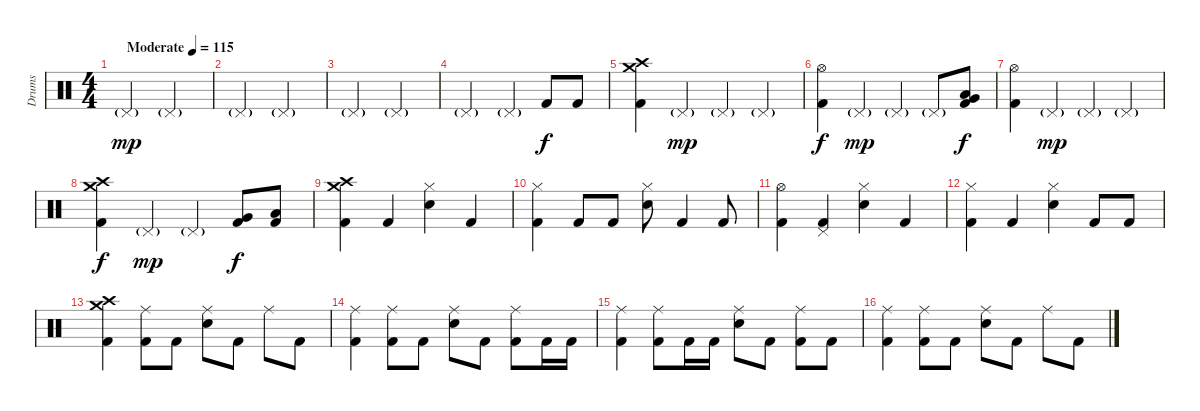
\track ("Drums" "Drums") {instrument percussion}
\staff {score}
\articulation defaults
\ts (4 4)
\tempo (115 "Moderate")
\clef neutral
\ks c "Pedal Hi-Hat (hit)"{g}.2{dy mp} "Pedal Hi-Hat (hit)"{g}.2
|
"Pedal Hi-Hat (hit)"{g}.2 "Pedal Hi-Hat (hit)"{g}.2 |
"Pedal Hi-Hat (hit)"{g}.2 "Pedal Hi-Hat (hit)"{g}.2 |
"Pedal Hi-Hat (hit)"{g}.2 "Pedal Hi-Hat (hit)"{g}.4 "Kick (hit) 2".8{dy f} "Kick (hit) 2".8 |
("Crash medium (hit)" "Crash high (hit)" "Kick (hit) 2").4 "Pedal Hi-Hat (hit)"{g}.4{dy mp} "Pedal Hi-Hat (hit)"{g}.4 "Pedal Hi-Hat (hit)"{g}.4 |
("Hi-Hat (open)" "Kick (hit) 2").4{dy f} "Pedal Hi-Hat (hit)"{g}.4{dy mp} "Pedal Hi-Hat (hit)"{g}.4 "Pedal Hi-Hat (hit)"{g}.8 ("Low Floor Tom (hit)" "Very Low Tom (hit)" "Kick (hit) 2").8{dy f} |
("Hi-Hat (open)" "Kick (hit) 2").4 "Pedal Hi-Hat (hit)"{g}.4{dy mp} "Pedal Hi-Hat (hit)"{g}.4 "Pedal Hi-Hat (hit)"{g}.4 |
("Crash medium (hit)" "Crash high (hit)" "Kick (hit) 2").4{dy f} "Pedal Hi-Hat (hit)"{g}.4{dy mp} "Pedal Hi-Hat (hit)"{g}.4 ("Very Low Tom (hit)" "Kick (hit) 2").8{dy f} ("Low Floor Tom (hit)" "Kick (hit) 2").8 |
("Crash medium (hit)" "Crash high (hit)" "Kick (hit) 2").4 "Kick (hit) 2".4 ("Hi-Hat (closed)" "Electric Snare (hit)").4 "Kick (hit) 2".4 |
("Hi-Hat (closed)" "Kick (hit) 2").4 "Kick (hit) 2".8 "Kick (hit) 2".8 ("Hi-Hat (closed)" "Electric Snare (hit)").8 "Kick (hit) 2".4 "Kick (hit) 2".8 |
("Hi-Hat (open)" "Kick (hit) 2").4 ("Pedal Hi-Hat (hit)" "Kick (hit) 2").4 ("Hi-Hat (closed)" "Electric Snare (hit)").4 "Kick (hit) 2".4 |
("Hi-Hat (closed)" "Kick (hit) 2").4 "Kick (hit) 2".4 ("Hi-Hat (closed)" "Electric Snare (hit)").4 "Kick (hit) 2".8 "Kick (hit) 2".8 |
("Crash medium (hit)" "Crash high (hit)" "Kick (hit) 2").4 ("Ride (middle)" "Kick (hit) 2").8 "Kick (hit) 2".8 ("Ride (middle)" "Electric Snare (hit)").8 "Kick (hit) 2".8 "Ride (middle)".8 "Kick (hit) 2".8 |
("Ride (middle)" "Kick (hit) 2").4 ("Ride (middle)" "Kick (hit) 2").8 "Kick (hit) 2".8 ("Ride (middle)" "Electric Snare (hit)").8 "Kick (hit) 2".8 ("Ride (middle)" "Kick (hit) 2").8 "Kick (hit) 2".16 "Kick (hit) 2".16 |
("Ride (middle)" "Kick (hit) 2").4 ("Ride (middle)" "Kick (hit) 2").8 "Kick (hit) 2".16 "Kick (hit) 2".16 ("Ride (middle)" "Electric Snare (hit)").8 "Kick (hit) 2".8 ("Ride (middle)" "Kick (hit) 2").8 "Kick (hit) 2".8 |
("Ride (middle)" "Kick (hit) 2").4 ("Ride (middle)" "Kick (hit) 2").8 "Kick (hit) 2".8 ("Ride (middle)" "Electric Snare (hit)").8 "Kick (hit) 2".8 "Ride (middle)".8 "Kick (hit) 2".8
